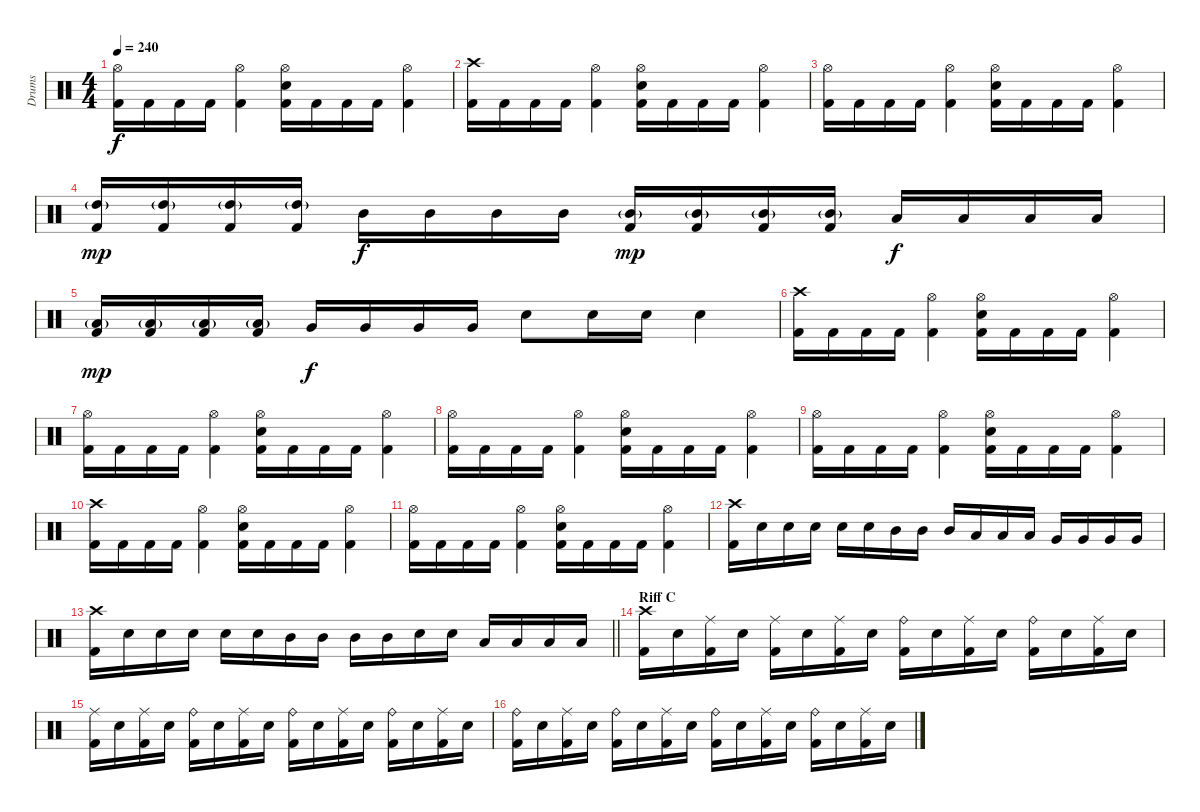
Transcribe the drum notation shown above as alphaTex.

\track ("Drums" "Drums") {instrument percussion}
\staff {score}
\articulation defaults
\ts (4 4)
\tempo 240
\clef neutral
\ks c
("Hi-Hat (open)" "Kick (hit) 2").16{dy f} "Kick (hit) 2".16 "Kick (hit) 2".16 "Kick (hit) 2".16 ("Hi-Hat (open)" "Kick (hit) 2").4 ("Hi-Hat (open)" "Electric Snare (hit)" "Kick (hit) 2").16 "Kick (hit) 2".16 "Kick (hit) 2".16 "Kick (hit) 2".16 ("Hi-Hat (open)" "Kick (hit) 2").4 |
("Crash high (hit)" "Kick (hit) 2").16 "Kick (hit) 2".16 "Kick (hit) 2".16 "Kick (hit) 2".16 ("Hi-Hat (open)" "Kick (hit) 2").4 ("Hi-Hat (open)" "Electric Snare (hit)" "Kick (hit) 2").16 "Kick (hit) 2".16 "Kick (hit) 2".16 "Kick (hit) 2".16 ("Hi-Hat (open)" "Kick (hit) 2").4 |
("Hi-Hat (open)" "Kick (hit) 2").16 "Kick (hit) 2".16 "Kick (hit) 2".16 "Kick (hit) 2".16 ("Hi-Hat (open)" "Kick (hit) 2").4 ("Hi-Hat (open)" "Electric Snare (hit)" "Kick (hit) 2").16 "Kick (hit) 2".16 "Kick (hit) 2".16 "Kick (hit) 2".16 ("Hi-Hat (open)" "Kick (hit) 2").4 |
("High Tom (hit)"{g} "Kick (hit) 2").16{dy mp} ("High Tom (hit)"{g} "Kick (hit) 2").16 ("High Tom (hit)"{g} "Kick (hit) 2").16 ("High Tom (hit)"{g} "Kick (hit) 2").16 "Mid Tom (hit)".16{dy f} "Mid Tom (hit)".16 "Mid Tom (hit)".16 "Mid Tom (hit)".16 ("Mid Tom (hit)"{g} "Kick (hit) 2").16{dy mp} ("Mid Tom (hit)"{g} "Kick (hit) 2").16 ("Mid Tom (hit)"{g} "Kick (hit) 2").16 ("Mid Tom (hit)"{g} "Kick (hit) 2").16 "Low Tom (hit)".16{dy f} "Low Tom (hit)".16 "Low Tom (hit)".16 "Low Tom (hit)".16 |
("Low Tom (hit)"{g} "Kick (hit) 2").16{dy mp} ("Low Tom (hit)"{g} "Kick (hit) 2").16 ("Low Tom (hit)"{g} "Kick (hit) 2").16 ("Low Tom (hit)"{g} "Kick (hit) 2").16 "Very Low Tom (hit)".16{dy f} "Very Low Tom (hit)".16 "Very Low Tom (hit)".16 "Very Low Tom (hit)".16 "Electric Snare (hit)".8 "Electric Snare (hit)".16 "Electric Snare (hit)".16 "Electric Snare (hit)".4 |
("Crash high (hit)" "Kick (hit) 2").16 "Kick (hit) 2".16 "Kick (hit) 2".16 "Kick (hit) 2".16 ("Hi-Hat (open)" "Kick (hit) 2").4 ("Hi-Hat (open)" "Electric Snare (hit)" "Kick (hit) 2").16 "Kick (hit) 2".16 "Kick (hit) 2".16 "Kick (hit) 2".16 ("Hi-Hat (open)" "Kick (hit) 2").4 |
("Hi-Hat (open)" "Kick (hit) 2").16 "Kick (hit) 2".16 "Kick (hit) 2".16 "Kick (hit) 2".16 ("Hi-Hat (open)" "Kick (hit) 2").4 ("Hi-Hat (open)" "Electric Snare (hit)" "Kick (hit) 2").16 "Kick (hit) 2".16 "Kick (hit) 2".16 "Kick (hit) 2".16 ("Hi-Hat (open)" "Kick (hit) 2").4 |
("Hi-Hat (open)" "Kick (hit) 2").16 "Kick (hit) 2".16 "Kick (hit) 2".16 "Kick (hit) 2".16 ("Hi-Hat (open)" "Kick (hit) 2").4 ("Hi-Hat (open)" "Electric Snare (hit)" "Kick (hit) 2").16 "Kick (hit) 2".16 "Kick (hit) 2".16 "Kick (hit) 2".16 ("Hi-Hat (open)" "Kick (hit) 2").4 |
("Hi-Hat (open)" "Kick (hit) 2").16 "Kick (hit) 2".16 "Kick (hit) 2".16 "Kick (hit) 2".16 ("Hi-Hat (open)" "Kick (hit) 2").4 ("Hi-Hat (open)" "Electric Snare (hit)" "Kick (hit) 2").16 "Kick (hit) 2".16 "Kick (hit) 2".16 "Kick (hit) 2".16 ("Hi-Hat (open)" "Kick (hit) 2").4 |
("Crash high (hit)" "Kick (hit) 2").16 "Kick (hit) 2".16 "Kick (hit) 2".16 "Kick (hit) 2".16 ("Hi-Hat (open)" "Kick (hit) 2").4 ("Hi-Hat (open)" "Electric Snare (hit)" "Kick (hit) 2").16 "Kick (hit) 2".16 "Kick (hit) 2".16 "Kick (hit) 2".16 ("Hi-Hat (open)" "Kick (hit) 2").4 |
("Hi-Hat (open)" "Kick (hit) 2").16 "Kick (hit) 2".16 "Kick (hit) 2".16 "Kick (hit) 2".16 ("Hi-Hat (open)" "Kick (hit) 2").4 ("Hi-Hat (open)" "Electric Snare (hit)" "Kick (hit) 2").16 "Kick (hit) 2".16 "Kick (hit) 2".16 "Kick (hit) 2".16 ("Hi-Hat (open)" "Kick (hit) 2").4 |
("Crash high (hit)" "Kick (hit) 2").16 "Electric Snare (hit)".16 "Electric Snare (hit)".16 "Electric Snare (hit)".16 "Electric Snare (hit)".16 "Electric Snare (hit)".16 "Mid Tom (hit)".16 "Mid Tom (hit)".16 "Mid Tom (hit)".16 "Low Tom (hit)".16 "Low Tom (hit)".16 "Low Tom (hit)".16 "Very Low Tom (hit)".16 "Very Low Tom (hit)".16 "Very Low Tom (hit)".16 "Very Low Tom (hit)".16 |
\barLineRight lightlight
("Crash high (hit)" "Kick (hit) 2").16 "Electric Snare (hit)".16 "Electric Snare (hit)".16 "Electric Snare (hit)".16 "Electric Snare (hit)".16 "Electric Snare (hit)".16 "Mid Tom (hit)".16 "Mid Tom (hit)".16 "Mid Tom (hit)".16 "Mid Tom (hit)".16 "Electric Snare (hit)".16 "Electric Snare (hit)".16 "Low Tom (hit)".16 "Low Tom (hit)".16 "Low Tom (hit)".16 "Low Tom (hit)".16 |
\section ("" "Riff C")
("Crash high (hit)" "Kick (hit) 2").16 "Electric Snare (hit)".16 ("Ride (middle)" "Kick (hit) 2").16 "Electric Snare (hit)".16 ("Ride (middle)" "Kick (hit) 2").16 "Electric Snare (hit)".16 ("Ride (middle)" "Kick (hit) 2").16 "Electric Snare (hit)".16 ("Ride (bell)" "Kick (hit) 2").16 "Electric Snare (hit)".16 ("Ride (middle)" "Kick (hit) 2").16 "Electric Snare (hit)".16 ("Ride (bell)" "Kick (hit) 2").16 "Electric Snare (hit)".16 ("Ride (middle)" "Kick (hit) 2").16 "Electric Snare (hit)".16 |
("Ride (middle)" "Kick (hit) 2").16 "Electric Snare (hit)".16 ("Ride (middle)" "Kick (hit) 2").16 "Electric Snare (hit)".16 ("Ride (bell)" "Kick (hit) 2").16 "Electric Snare (hit)".16 ("Ride (middle)" "Kick (hit) 2").16 "Electric Snare (hit)".16 ("Ride (bell)" "Kick (hit) 2").16 "Electric Snare (hit)".16 ("Ride (middle)" "Kick (hit) 2").16 "Electric Snare (hit)".16 ("Ride (bell)" "Kick (hit) 2").16 "Electric Snare (hit)".16 ("Ride (middle)" "Kick (hit) 2").16 "Electric Snare (hit)".16 |
("Ride (bell)" "Kick (hit) 2").16 "Electric Snare (hit)".16 ("Ride (middle)" "Kick (hit) 2").16 "Electric Snare (hit)".16 ("Ride (bell)" "Kick (hit) 2").16 "Electric Snare (hit)".16 ("Ride (middle)" "Kick (hit) 2").16 "Electric Snare (hit)".16 ("Ride (bell)" "Kick (hit) 2").16 "Electric Snare (hit)".16 ("Ride (middle)" "Kick (hit) 2").16 "Electric Snare (hit)".16 ("Ride (bell)" "Kick (hit) 2").16 "Electric Snare (hit)".16 ("Ride (middle)" "Kick (hit) 2").16 "Electric Snare (hit)".16
